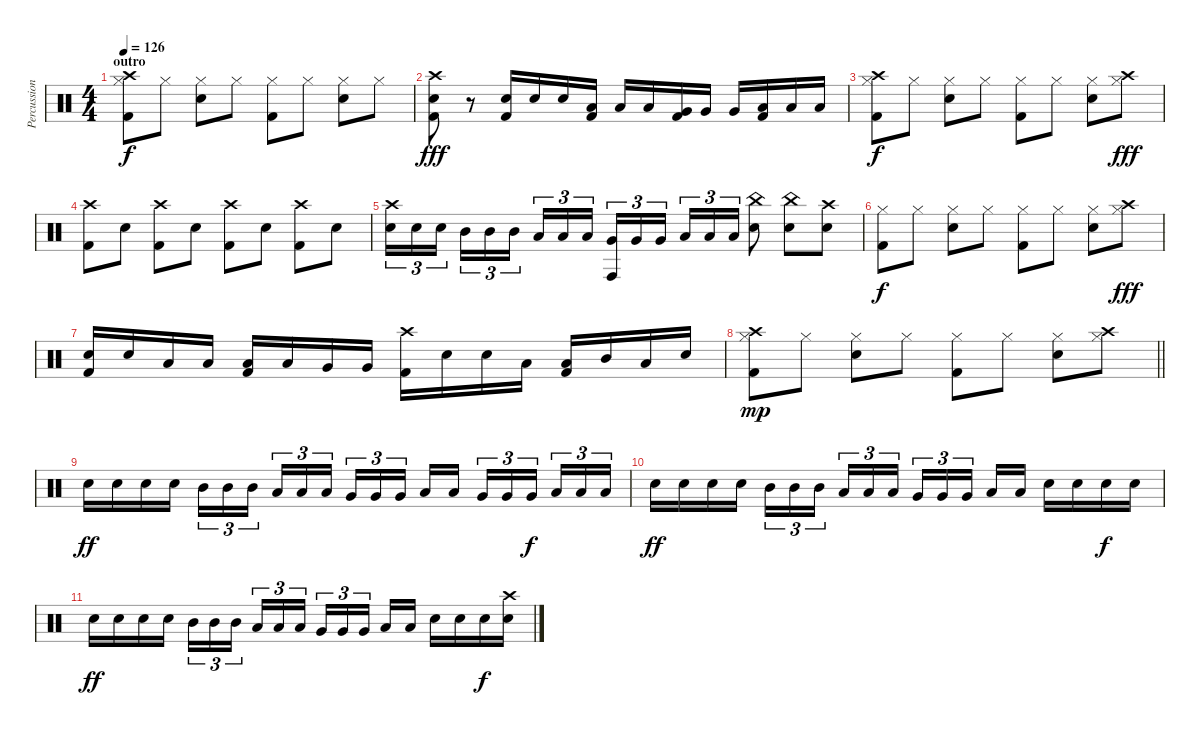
\track ("Percussion" "Percussion") {instrument percussion}
\staff {score}
\articulation defaults
\ts (4 4)
\section ("" "outro")
\tempo 126
\clef neutral
\ks c
("Hi-Hat (closed)" "Crash high (hit)" "Kick (hit) 2").8{dy f} "Hi-Hat (closed)".8 ("Hi-Hat (closed)" "Electric Snare (hit)").8 "Hi-Hat (closed)".8 ("Hi-Hat (closed)" "Kick (hit) 2").8 "Hi-Hat (closed)".8 ("Hi-Hat (closed)" "Electric Snare (hit)").8 "Hi-Hat (closed)".8 |
("Electric Snare (hit)" "Kick (hit) 2" "Crash high (hit)").8{dy fff} r.8 ("Electric Snare (hit)" "Kick (hit) 2").16 "Electric Snare (hit)".16 "Electric Snare (hit)".16 ("Low Tom (hit)" "Kick (hit) 2").16 "Low Tom (hit)".16 "Low Tom (hit)".16 ("Very Low Tom (hit)" "Kick (hit) 2").16 "Very Low Tom (hit)".16 "Very Low Tom (hit)".16 ("Low Floor Tom (hit)" "Kick (hit) 2").16 "Low Floor Tom (hit)".16 "Low Floor Tom (hit)".16 |
("Hi-Hat (closed)" "Crash high (hit)" "Kick (hit) 2").8{dy f} "Hi-Hat (closed)".8 ("Hi-Hat (closed)" "Electric Snare (hit)").8 "Hi-Hat (closed)".8 ("Hi-Hat (closed)" "Kick (hit) 2").8 "Hi-Hat (closed)".8 ("Hi-Hat (closed)" "Electric Snare (hit)").8 ("Hi-Hat (closed)" "Crash high (hit)").8{dy fff} |
("Crash high (hit)" "Kick (hit) 2").8 "Electric Snare (hit)".8 ("Crash high (hit)" "Kick (hit) 2").8 "Electric Snare (hit)".8 ("Crash high (hit)" "Kick (hit) 2").8 "Electric Snare (hit)".8 ("Crash high (hit)" "Kick (hit) 2").8 "Electric Snare (hit)".8 |
("Electric Snare (hit)" "Crash high (hit)").16{tu (3 2)} "Electric Snare (hit)".16{tu (3 2)} "Electric Snare (hit)".16{tu (3 2) beam splitsecondary} "Mid Tom (hit)".16{tu (3 2)} "Mid Tom (hit)".16{tu (3 2)} "Mid Tom (hit)".16{tu (3 2)} "Low Tom (hit)".16{tu (3 2)} "Low Tom (hit)".16{tu (3 2)} "Low Tom (hit)".16{tu (3 2) beam splitsecondary} ("Very Low Tom (hit)" "Conga high (hit)").16{tu (3 2)} "Very Low Tom (hit)".16{tu (3 2)} "Very Low Tom (hit)".16{tu (3 2)} "Low Floor Tom (hit)".16{tu (3 2)} "Low Floor Tom (hit)".16{tu (3 2)} "Low Floor Tom (hit)".16{tu (3 2)} ("Electric Snare (hit)" "China (hit)").8 ("Electric Snare (hit)" "China (hit)").8 ("Electric Snare (hit)" "Crash high (hit)").8 |
("Hi-Hat (closed)" "Kick (hit) 2").8{dy f} "Hi-Hat (closed)".8 ("Hi-Hat (closed)" "Electric Snare (hit)").8 "Hi-Hat (closed)".8 ("Hi-Hat (closed)" "Kick (hit) 2").8 "Hi-Hat (closed)".8 ("Hi-Hat (closed)" "Electric Snare (hit)").8 ("Hi-Hat (closed)" "Crash high (hit)").8{dy fff} |
("Electric Snare (hit)" "Kick (hit) 2").16 "Electric Snare (hit)".16 "Low Tom (hit)".16 "Low Tom (hit)".16 ("Low Floor Tom (hit)" "Kick (hit) 2").16 "Low Floor Tom (hit)".16 "Very Low Tom (hit)".16 "Very Low Tom (hit)".16 ("Crash high (hit)" "Kick (hit) 2").16 "Electric Snare (hit)".16 "Electric Snare (hit)".16 "Low Tom (hit)".16 ("Low Tom (hit)" "Kick (hit) 2").16 "Mid Tom (hit)".16 "Low Tom (hit)".16 "Electric Snare (hit)".16 |
\barLineRight lightlight
("Hi-Hat (closed)" "Crash high (hit)" "Kick (hit) 2").8{dy mp} "Hi-Hat (closed)".8 ("Hi-Hat (closed)" "Electric Snare (hit)").8 "Hi-Hat (closed)".8 ("Hi-Hat (closed)" "Kick (hit) 2").8 "Hi-Hat (closed)".8 ("Hi-Hat (closed)" "Electric Snare (hit)").8 ("Hi-Hat (closed)" "Crash high (hit)").8 |
"Electric Snare (hit)".16{dy ff volume 0} "Electric Snare (hit)".16 "Electric Snare (hit)".16 "Electric Snare (hit)".16 "Mid Tom (hit)".16{tu (3 2)} "Mid Tom (hit)".16{tu (3 2)} "Mid Tom (hit)".16{tu (3 2) beam splitsecondary} "Low Tom (hit)".16{tu (3 2)} "Low Tom (hit)".16{tu (3 2)} "Low Tom (hit)".16{tu (3 2)} "Very Low Tom (hit)".16{tu (3 2)} "Very Low Tom (hit)".16{tu (3 2)} "Very Low Tom (hit)".16{tu (3 2) beam splitsecondary} "Low Floor Tom (hit)".16 "Low Floor Tom (hit)".16 "Very Low Tom (hit)".16{tu (3 2)} "Very Low Tom (hit)".16{tu (3 2)} "Very Low Tom (hit)".16{tu (3 2) dy f beam splitsecondary} "Low Tom (hit)".16{tu (3 2)} "Low Tom (hit)".16{tu (3 2)} "Low Tom (hit)".16{tu (3 2)} |
"Electric Snare (hit)".16{dy ff} "Electric Snare (hit)".16 "Electric Snare (hit)".16 "Electric Snare (hit)".16 "Mid Tom (hit)".16{tu (3 2)} "Mid Tom (hit)".16{tu (3 2)} "Mid Tom (hit)".16{tu (3 2) beam splitsecondary} "Low Tom (hit)".16{tu (3 2)} "Low Tom (hit)".16{tu (3 2)} "Low Tom (hit)".16{tu (3 2)} "Very Low Tom (hit)".16{tu (3 2)} "Very Low Tom (hit)".16{tu (3 2)} "Very Low Tom (hit)".16{tu (3 2) beam splitsecondary} "Low Floor Tom (hit)".16 "Low Floor Tom (hit)".16 "Electric Snare (hit)".16 "Electric Snare (hit)".16 "Electric Snare (hit)".16{dy f} "Electric Snare (hit)".16 |
"Electric Snare (hit)".16{dy ff} "Electric Snare (hit)".16 "Electric Snare (hit)".16 "Electric Snare (hit)".16 "Mid Tom (hit)".16{tu (3 2)} "Mid Tom (hit)".16{tu (3 2)} "Mid Tom (hit)".16{tu (3 2) beam splitsecondary} "Low Tom (hit)".16{tu (3 2)} "Low Tom (hit)".16{tu (3 2)} "Low Tom (hit)".16{tu (3 2)} "Very Low Tom (hit)".16{tu (3 2)} "Very Low Tom (hit)".16{tu (3 2)} "Very Low Tom (hit)".16{tu (3 2) beam splitsecondary} "Low Floor Tom (hit)".16 "Low Floor Tom (hit)".16 "Electric Snare (hit)".16 "Electric Snare (hit)".16 "Electric Snare (hit)".16{dy f} ("Electric Snare (hit)" "Crash high (hit)").16
